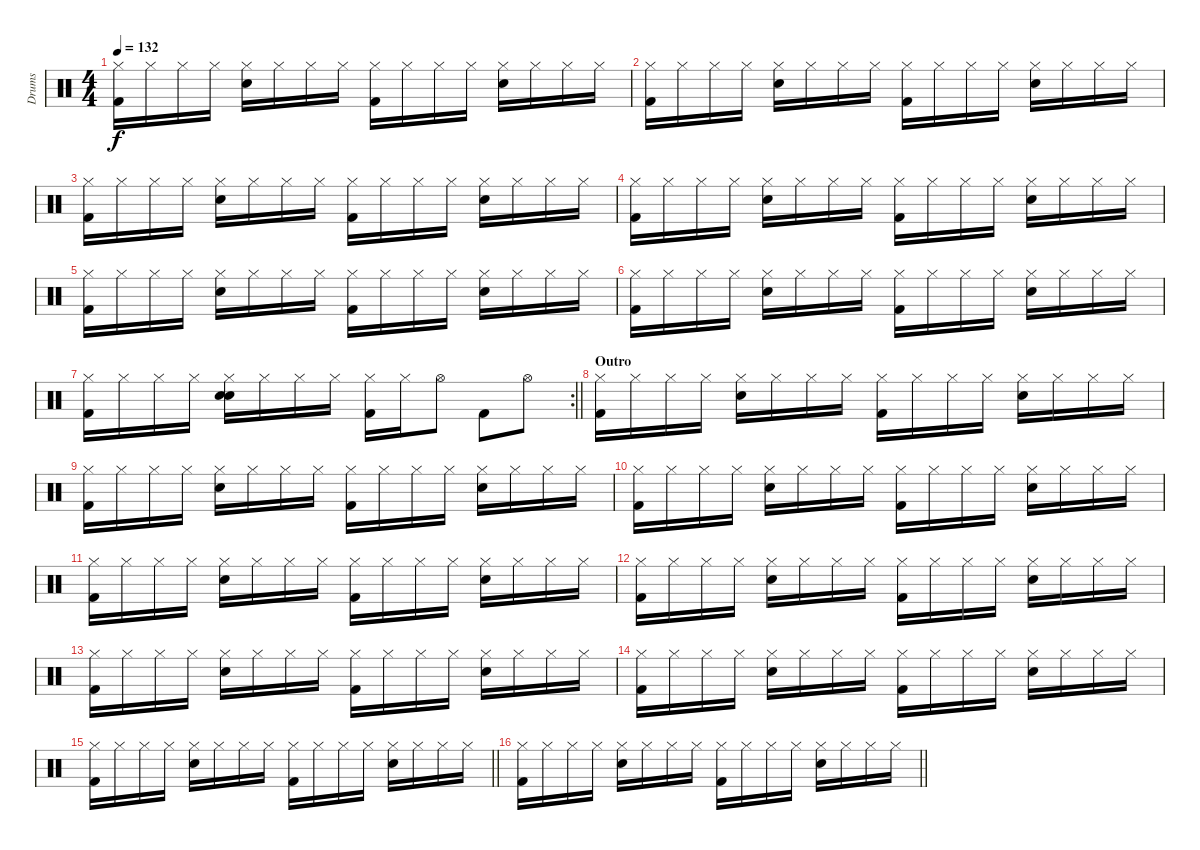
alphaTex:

\track ("Drums" "Drums") {instrument percussion}
\staff {score}
\articulation defaults
\ts (4 4)
\tempo 132
\clef neutral
\ks c
("Hi-Hat (closed)" "Kick (hit) 2").16{dy f} "Hi-Hat (closed)".16 "Hi-Hat (closed)".16 "Hi-Hat (closed)".16 ("Hi-Hat (closed)" "Snare (hit) 2").16 "Hi-Hat (closed)".16 "Hi-Hat (closed)".16 "Hi-Hat (closed)".16 ("Hi-Hat (closed)" "Kick (hit) 2").16 "Hi-Hat (closed)".16 "Hi-Hat (closed)".16 "Hi-Hat (closed)".16 ("Hi-Hat (closed)" "Snare (hit) 2").16 "Hi-Hat (closed)".16 "Hi-Hat (closed)".16 "Hi-Hat (closed)".16 |
("Hi-Hat (closed)" "Kick (hit) 2").16 "Hi-Hat (closed)".16 "Hi-Hat (closed)".16 "Hi-Hat (closed)".16 ("Hi-Hat (closed)" "Snare (hit) 2").16 "Hi-Hat (closed)".16 "Hi-Hat (closed)".16 "Hi-Hat (closed)".16 ("Hi-Hat (closed)" "Kick (hit) 2").16 "Hi-Hat (closed)".16 "Hi-Hat (closed)".16 "Hi-Hat (closed)".16 ("Hi-Hat (closed)" "Snare (hit) 2").16 "Hi-Hat (closed)".16 "Hi-Hat (closed)".16 "Hi-Hat (closed)".16 |
("Hi-Hat (closed)" "Kick (hit) 2").16 "Hi-Hat (closed)".16 "Hi-Hat (closed)".16 "Hi-Hat (closed)".16 ("Hi-Hat (closed)" "Snare (hit) 2").16 "Hi-Hat (closed)".16 "Hi-Hat (closed)".16 "Hi-Hat (closed)".16 ("Hi-Hat (closed)" "Kick (hit) 2").16 "Hi-Hat (closed)".16 "Hi-Hat (closed)".16 "Hi-Hat (closed)".16 ("Hi-Hat (closed)" "Snare (hit) 2").16 "Hi-Hat (closed)".16 "Hi-Hat (closed)".16 "Hi-Hat (closed)".16 |
("Hi-Hat (closed)" "Kick (hit) 2").16 "Hi-Hat (closed)".16 "Hi-Hat (closed)".16 "Hi-Hat (closed)".16 ("Hi-Hat (closed)" "Snare (hit) 2").16 "Hi-Hat (closed)".16 "Hi-Hat (closed)".16 "Hi-Hat (closed)".16 ("Hi-Hat (closed)" "Kick (hit) 2").16 "Hi-Hat (closed)".16 "Hi-Hat (closed)".16 "Hi-Hat (closed)".16 ("Hi-Hat (closed)" "Snare (hit) 2").16 "Hi-Hat (closed)".16 "Hi-Hat (closed)".16 "Hi-Hat (closed)".16 |
("Hi-Hat (closed)" "Kick (hit) 2").16 "Hi-Hat (closed)".16 "Hi-Hat (closed)".16 "Hi-Hat (closed)".16 ("Hi-Hat (closed)" "Snare (hit) 2").16 "Hi-Hat (closed)".16 "Hi-Hat (closed)".16 "Hi-Hat (closed)".16 ("Hi-Hat (closed)" "Kick (hit) 2").16 "Hi-Hat (closed)".16 "Hi-Hat (closed)".16 "Hi-Hat (closed)".16 ("Hi-Hat (closed)" "Snare (hit) 2").16 "Hi-Hat (closed)".16 "Hi-Hat (closed)".16 "Hi-Hat (closed)".16 |
("Hi-Hat (closed)" "Kick (hit) 2").16 "Hi-Hat (closed)".16 "Hi-Hat (closed)".16 "Hi-Hat (closed)".16 ("Hi-Hat (closed)" "Snare (hit) 2").16 "Hi-Hat (closed)".16 "Hi-Hat (closed)".16 "Hi-Hat (closed)".16 ("Hi-Hat (closed)" "Kick (hit) 2").16 "Hi-Hat (closed)".16 "Hi-Hat (closed)".16 "Hi-Hat (closed)".16 ("Hi-Hat (closed)" "Snare (hit) 2").16 "Hi-Hat (closed)".16 "Hi-Hat (closed)".16 "Hi-Hat (closed)".16 |
\rc 2
\barLineRight lightlight
("Hi-Hat (closed)" "Kick (hit) 2").16 "Hi-Hat (closed)".16 "Hi-Hat (closed)".16 "Hi-Hat (closed)".16 ("Hi-Hat (closed)" "Hand Clap (hit)" "Snare (hit) 2").16 "Hi-Hat (closed)".16 "Hi-Hat (closed)".16 "Hi-Hat (closed)".16 ("Hi-Hat (closed)" "Kick (hit) 2").16 "Hi-Hat (closed)".16 "Hi-Hat (open)".8 "Kick (hit) 2".8 "Hi-Hat (open)".8 |
\section ("" "Outro")
("Hi-Hat (closed)" "Kick (hit) 2").16 "Hi-Hat (closed)".16 "Hi-Hat (closed)".16 "Hi-Hat (closed)".16 ("Hi-Hat (closed)" "Snare (hit) 2").16 "Hi-Hat (closed)".16 "Hi-Hat (closed)".16 "Hi-Hat (closed)".16 ("Hi-Hat (closed)" "Kick (hit) 2").16 "Hi-Hat (closed)".16 "Hi-Hat (closed)".16 "Hi-Hat (closed)".16 ("Hi-Hat (closed)" "Snare (hit) 2").16 "Hi-Hat (closed)".16 "Hi-Hat (closed)".16 "Hi-Hat (closed)".16 |
("Hi-Hat (closed)" "Kick (hit) 2").16 "Hi-Hat (closed)".16 "Hi-Hat (closed)".16 "Hi-Hat (closed)".16 ("Hi-Hat (closed)" "Snare (hit) 2").16 "Hi-Hat (closed)".16 "Hi-Hat (closed)".16 "Hi-Hat (closed)".16 ("Hi-Hat (closed)" "Kick (hit) 2").16 "Hi-Hat (closed)".16 "Hi-Hat (closed)".16 "Hi-Hat (closed)".16 ("Hi-Hat (closed)" "Snare (hit) 2").16 "Hi-Hat (closed)".16 "Hi-Hat (closed)".16 "Hi-Hat (closed)".16 |
("Hi-Hat (closed)" "Kick (hit) 2").16 "Hi-Hat (closed)".16 "Hi-Hat (closed)".16 "Hi-Hat (closed)".16 ("Hi-Hat (closed)" "Snare (hit) 2").16 "Hi-Hat (closed)".16 "Hi-Hat (closed)".16 "Hi-Hat (closed)".16 ("Hi-Hat (closed)" "Kick (hit) 2").16 "Hi-Hat (closed)".16 "Hi-Hat (closed)".16 "Hi-Hat (closed)".16 ("Hi-Hat (closed)" "Snare (hit) 2").16 "Hi-Hat (closed)".16 "Hi-Hat (closed)".16 "Hi-Hat (closed)".16 |
("Hi-Hat (closed)" "Kick (hit) 2").16 "Hi-Hat (closed)".16 "Hi-Hat (closed)".16 "Hi-Hat (closed)".16 ("Hi-Hat (closed)" "Snare (hit) 2").16 "Hi-Hat (closed)".16 "Hi-Hat (closed)".16 "Hi-Hat (closed)".16 ("Hi-Hat (closed)" "Kick (hit) 2").16 "Hi-Hat (closed)".16 "Hi-Hat (closed)".16 "Hi-Hat (closed)".16 ("Hi-Hat (closed)" "Snare (hit) 2").16 "Hi-Hat (closed)".16 "Hi-Hat (closed)".16 "Hi-Hat (closed)".16 |
("Hi-Hat (closed)" "Kick (hit) 2").16 "Hi-Hat (closed)".16 "Hi-Hat (closed)".16 "Hi-Hat (closed)".16 ("Hi-Hat (closed)" "Snare (hit) 2").16 "Hi-Hat (closed)".16 "Hi-Hat (closed)".16 "Hi-Hat (closed)".16 ("Hi-Hat (closed)" "Kick (hit) 2").16 "Hi-Hat (closed)".16 "Hi-Hat (closed)".16 "Hi-Hat (closed)".16 ("Hi-Hat (closed)" "Snare (hit) 2").16 "Hi-Hat (closed)".16 "Hi-Hat (closed)".16 "Hi-Hat (closed)".16 |
("Hi-Hat (closed)" "Kick (hit) 2").16 "Hi-Hat (closed)".16 "Hi-Hat (closed)".16 "Hi-Hat (closed)".16 ("Hi-Hat (closed)" "Snare (hit) 2").16 "Hi-Hat (closed)".16 "Hi-Hat (closed)".16 "Hi-Hat (closed)".16 ("Hi-Hat (closed)" "Kick (hit) 2").16 "Hi-Hat (closed)".16 "Hi-Hat (closed)".16 "Hi-Hat (closed)".16 ("Hi-Hat (closed)" "Snare (hit) 2").16 "Hi-Hat (closed)".16 "Hi-Hat (closed)".16 "Hi-Hat (closed)".16 |
("Hi-Hat (closed)" "Kick (hit) 2").16 "Hi-Hat (closed)".16 "Hi-Hat (closed)".16 "Hi-Hat (closed)".16 ("Hi-Hat (closed)" "Snare (hit) 2").16 "Hi-Hat (closed)".16 "Hi-Hat (closed)".16 "Hi-Hat (closed)".16 ("Hi-Hat (closed)" "Kick (hit) 2").16 "Hi-Hat (closed)".16 "Hi-Hat (closed)".16 "Hi-Hat (closed)".16 ("Hi-Hat (closed)" "Snare (hit) 2").16 "Hi-Hat (closed)".16 "Hi-Hat (closed)".16 "Hi-Hat (closed)".16 |
\barLineRight lightlight
("Hi-Hat (closed)" "Kick (hit) 2").16 "Hi-Hat (closed)".16 "Hi-Hat (closed)".16 "Hi-Hat (closed)".16 ("Hi-Hat (closed)" "Snare (hit) 2").16 "Hi-Hat (closed)".16 "Hi-Hat (closed)".16 "Hi-Hat (closed)".16 ("Hi-Hat (closed)" "Kick (hit) 2").16 "Hi-Hat (closed)".16 "Hi-Hat (closed)".16 "Hi-Hat (closed)".16 ("Hi-Hat (closed)" "Snare (hit) 2").16 "Hi-Hat (closed)".16 "Hi-Hat (closed)".16 "Hi-Hat (closed)".16 |
\barLineRight lightlight
("Hi-Hat (closed)" "Kick (hit) 2").16 "Hi-Hat (closed)".16 "Hi-Hat (closed)".16 "Hi-Hat (closed)".16 ("Hi-Hat (closed)" "Snare (hit) 2").16 "Hi-Hat (closed)".16 "Hi-Hat (closed)".16 "Hi-Hat (closed)".16 ("Hi-Hat (closed)" "Kick (hit) 2").16 "Hi-Hat (closed)".16 "Hi-Hat (closed)".16 "Hi-Hat (closed)".16 ("Hi-Hat (closed)" "Snare (hit) 2").16 "Hi-Hat (closed)".16 "Hi-Hat (closed)".16 "Hi-Hat (closed)".16
